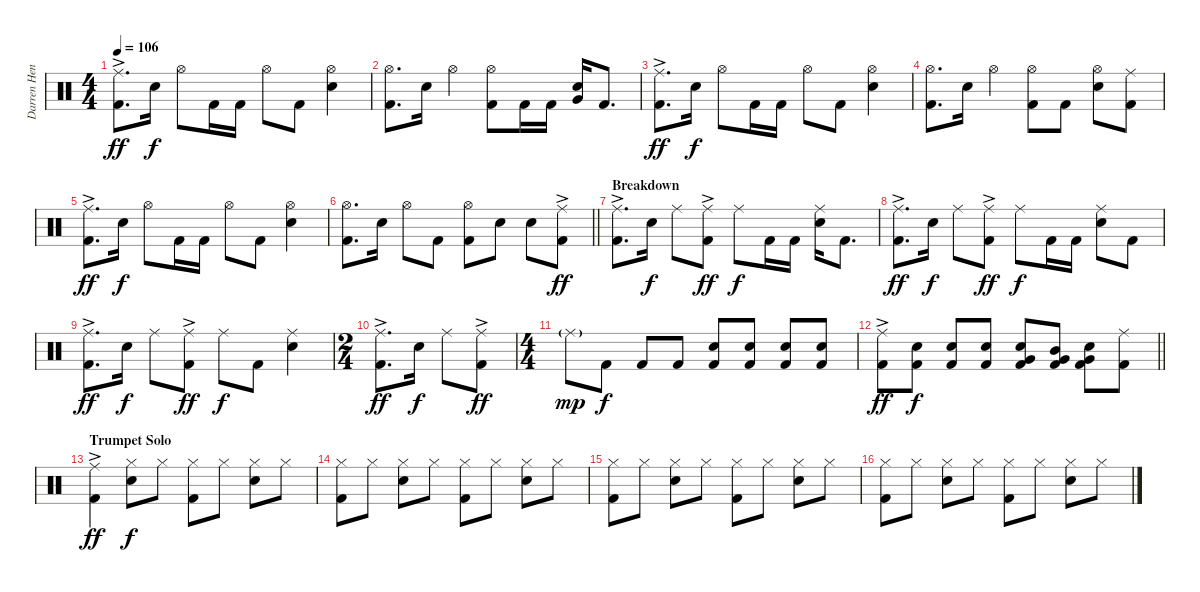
\track ("Darren Henley [Drums]" "Darren Hen") {instrument percussion}
\staff {score}
\articulation defaults
\ts (4 4)
\tempo 106
\clef neutral
\ks c
("Ride (middle)"{ac} "Kick (hit) 2").8{d dy ff} "Snare (hit) 2".16{dy f} "Hi-Hat (open)".8 "Kick (hit) 2".16 "Kick (hit) 2".16 "Hi-Hat (open)".8 "Kick (hit) 2".8 ("Hi-Hat (open)" "Snare (hit) 2").4 |
("Hi-Hat (open)" "Kick (hit) 2").8{d} "Snare (hit) 2".16 "Hi-Hat (open)".4 ("Hi-Hat (open)" "Kick (hit) 2").8 "Kick (hit) 2".16 "Kick (hit) 2".16 ("Snare (hit) 2" "Very Low Tom (hit)").16 "Kick (hit) 2".8{d} |
("Ride (middle)"{ac} "Kick (hit) 2").8{d dy ff} "Snare (hit) 2".16{dy f} "Hi-Hat (open)".8 "Kick (hit) 2".16 "Kick (hit) 2".16 "Hi-Hat (open)".8 "Kick (hit) 2".8 ("Hi-Hat (open)" "Snare (hit) 2").4 |
("Hi-Hat (open)" "Kick (hit) 2").8{d} "Snare (hit) 2".16 "Hi-Hat (open)".4 ("Hi-Hat (open)" "Kick (hit) 2").8 "Kick (hit) 2".8 ("Hi-Hat (open)" "Snare (hit) 2").8 ("Ride (middle)" "Kick (hit) 2").8 |
("Ride (middle)"{ac} "Kick (hit) 2").8{d dy ff} "Snare (hit) 2".16{dy f} "Hi-Hat (open)".8 "Kick (hit) 2".16 "Kick (hit) 2".16 "Hi-Hat (open)".8 "Kick (hit) 2".8 ("Hi-Hat (open)" "Snare (hit) 2").4 |
\barLineRight lightlight
("Hi-Hat (open)" "Kick (hit) 2").8{d} "Snare (hit) 2".16 "Hi-Hat (open)".8 "Kick (hit) 2".8 ("Hi-Hat (open)" "Kick (hit) 2").8 "Snare (hit) 2".8 "Snare (hit) 2".8 ("Ride (middle)"{ac} "Kick (hit) 2").8{dy ff} |
\section ("" "Breakdown")
("Ride (middle)"{ac} "Kick (hit) 2").8{d} "Snare (hit) 2".16{dy f} "Ride (middle)".8 ("Ride (middle)"{ac} "Kick (hit) 2").8{dy ff} "Ride (middle)".8{dy f} "Kick (hit) 2".16 "Kick (hit) 2".16 ("Ride (middle)" "Snare (hit) 2").16 "Kick (hit) 2".8{d} |
("Ride (middle)"{ac} "Kick (hit) 2").8{d dy ff} "Snare (hit) 2".16{dy f} "Ride (middle)".8 ("Ride (middle)"{ac} "Kick (hit) 2").8{dy ff} "Ride (middle)".8{dy f} "Kick (hit) 2".16 "Kick (hit) 2".16 ("Ride (middle)" "Snare (hit) 2").8 "Kick (hit) 2".8 |
("Ride (middle)"{ac} "Kick (hit) 2").8{d dy ff} "Snare (hit) 2".16{dy f} "Ride (middle)".8 ("Ride (middle)"{ac} "Kick (hit) 2").8{dy ff} "Ride (middle)".8{dy f} "Kick (hit) 2".8 ("Ride (middle)" "Snare (hit) 2").4 |
\ts (2 4)
("Ride (middle)"{ac} "Kick (hit) 2").8{d dy ff} "Snare (hit) 2".16{dy f} "Ride (middle)".8 ("Ride (middle)"{ac} "Kick (hit) 2").8{dy ff} |
\ts (4 4)
"Ride (middle)"{g}.8{dy mp} "Kick (hit) 2".8{dy f} "Kick (hit) 2".8 "Kick (hit) 2".8 ("Snare (hit) 2" "Kick (hit) 2").8 ("Snare (hit) 2" "Kick (hit) 2").8 ("Snare (hit) 2" "Kick (hit) 2").8 ("Snare (hit) 2" "Kick (hit) 2").8 |
\barLineRight lightlight
("Ride (middle)"{ac} "Kick (hit) 2").8{dy ff} ("Snare (hit) 2" "Kick (hit) 2").8{dy f} ("Snare (hit) 2" "Kick (hit) 2").8 ("Snare (hit) 2" "Kick (hit) 2").8 ("Snare (hit) 2" "Very Low Tom (hit)" "Kick (hit) 2").8 ("Mid Tom (hit)" "Very Low Tom (hit)" "Kick (hit) 2").8 ("Snare (hit) 2" "Very Low Tom (hit)" "Kick (hit) 2").8 ("Ride (middle)" "Kick (hit) 2").8 |
\section ("" "Trumpet Solo")
("Ride (middle)"{ac} "Kick (hit) 2").4{dy ff} ("Hi-Hat (closed)" "Snare (hit) 2").8{dy f} "Hi-Hat (closed)".8 ("Hi-Hat (closed)" "Kick (hit) 2").8 "Hi-Hat (closed)".8 ("Hi-Hat (closed)" "Snare (hit) 2").8 "Hi-Hat (closed)".8 |
("Hi-Hat (closed)" "Kick (hit) 2").8 "Hi-Hat (closed)".8 ("Hi-Hat (closed)" "Snare (hit) 2").8 "Hi-Hat (closed)".8 ("Hi-Hat (closed)" "Kick (hit) 2").8 "Hi-Hat (closed)".8 ("Hi-Hat (closed)" "Snare (hit) 2").8 "Hi-Hat (closed)".8 |
("Hi-Hat (closed)" "Kick (hit) 2").8 "Hi-Hat (closed)".8 ("Hi-Hat (closed)" "Snare (hit) 2").8 "Hi-Hat (closed)".8 ("Hi-Hat (closed)" "Kick (hit) 2").8 "Hi-Hat (closed)".8 ("Hi-Hat (closed)" "Snare (hit) 2").8 "Hi-Hat (closed)".8 |
("Hi-Hat (closed)" "Kick (hit) 2").8 "Hi-Hat (closed)".8 ("Hi-Hat (closed)" "Snare (hit) 2").8 "Hi-Hat (closed)".8 ("Hi-Hat (closed)" "Kick (hit) 2").8 "Hi-Hat (closed)".8 ("Hi-Hat (closed)" "Snare (hit) 2").8 "Hi-Hat (closed)".8
